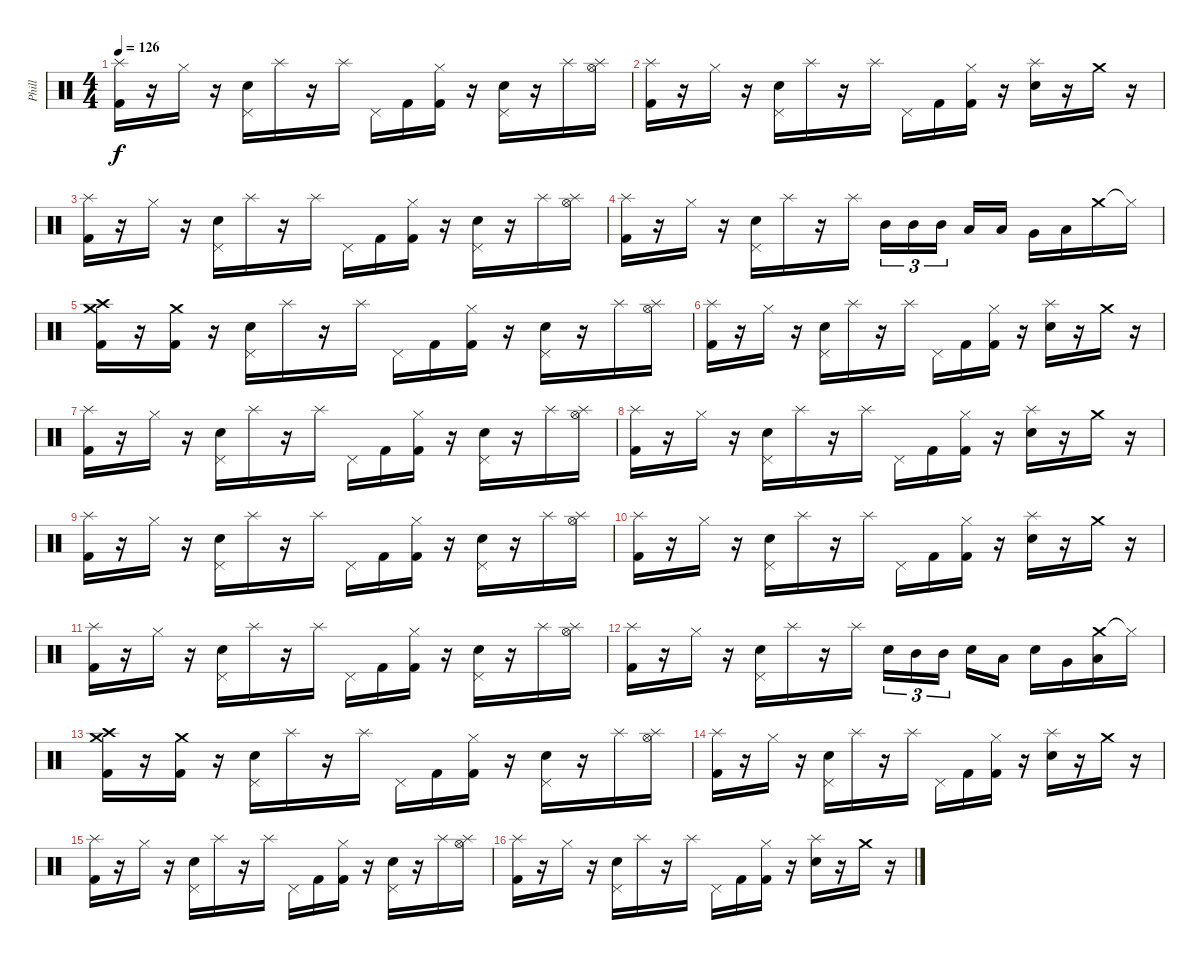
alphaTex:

\track ("Phill" "Phill") {instrument percussion}
\staff {score}
\articulation defaults
\ts (4 4)
\tempo 126
\clef neutral
\ks c
("Splash (hit)" "Kick (hit) 2").16{dy f} r.16 "Hi-Hat (closed)".16 r.16 ("Pedal Hi-Hat (hit)" "Electric Snare (hit)").16 "Splash (hit)".16 r.16 "Splash (hit)".16 "Pedal Hi-Hat (hit)".16 "Kick (hit) 2".16 ("Hi-Hat (closed)" "Kick (hit) 2").16 r.16 ("Pedal Hi-Hat (hit)" "Electric Snare (hit)").16 r.16 "Splash (hit)".16 ("Splash (hit)" "Hi-Hat (open)").16 |
("Splash (hit)" "Kick (hit) 2").16 r.16 "Hi-Hat (closed)".16 r.16 ("Pedal Hi-Hat (hit)" "Electric Snare (hit)").16 "Splash (hit)".16 r.16 "Splash (hit)".16 "Pedal Hi-Hat (hit)".16 "Kick (hit) 2".16 ("Hi-Hat (closed)" "Kick (hit) 2").16 r.16 ("Splash (hit)" "Electric Snare (hit)").16 r.16 "Crash medium (hit)".16 r.16 |
("Splash (hit)" "Kick (hit) 2").16 r.16 "Hi-Hat (closed)".16 r.16 ("Pedal Hi-Hat (hit)" "Electric Snare (hit)").16 "Splash (hit)".16 r.16 "Splash (hit)".16 "Pedal Hi-Hat (hit)".16 "Kick (hit) 2".16 ("Hi-Hat (closed)" "Kick (hit) 2").16 r.16 ("Pedal Hi-Hat (hit)" "Electric Snare (hit)").16 r.16 "Splash (hit)".16 ("Splash (hit)" "Hi-Hat (open)").16 |
("Splash (hit)" "Kick (hit) 2").16 r.16 "Hi-Hat (closed)".16 r.16 ("Pedal Hi-Hat (hit)" "Electric Snare (hit)").16 "Splash (hit)".16 r.16 "Splash (hit)".16 "Mid Tom (hit)".16{tu (3 2)} "Mid Tom (hit)".16{tu (3 2)} "Mid Tom (hit)".16{tu (3 2)} "Low Tom (hit)".16 "Low Tom (hit)".16 "Very Low Tom (hit)".16 "Low Floor Tom (hit)".16 "Crash medium (hit)".16 "Hi-Hat (closed)"{t}.16 |
("Crash medium (hit)" "Crash high (hit)" "Kick (hit) 2").16 r.16 ("Crash medium (hit)" "Kick (hit) 2").16 r.16 ("Pedal Hi-Hat (hit)" "Electric Snare (hit)").16 "Splash (hit)".16 r.16 "Splash (hit)".16 "Pedal Hi-Hat (hit)".16 "Kick (hit) 2".16 ("Hi-Hat (closed)" "Kick (hit) 2").16 r.16 ("Pedal Hi-Hat (hit)" "Electric Snare (hit)").16 r.16 "Splash (hit)".16 ("Splash (hit)" "Hi-Hat (open)").16 |
("Splash (hit)" "Kick (hit) 2").16 r.16 "Hi-Hat (closed)".16 r.16 ("Pedal Hi-Hat (hit)" "Electric Snare (hit)").16 "Splash (hit)".16 r.16 "Splash (hit)".16 "Pedal Hi-Hat (hit)".16 "Kick (hit) 2".16 ("Hi-Hat (closed)" "Kick (hit) 2").16 r.16 ("Splash (hit)" "Electric Snare (hit)").16 r.16 "Crash medium (hit)".16 r.16 |
("Splash (hit)" "Kick (hit) 2").16 r.16 "Hi-Hat (closed)".16 r.16 ("Pedal Hi-Hat (hit)" "Electric Snare (hit)").16 "Splash (hit)".16 r.16 "Splash (hit)".16 "Pedal Hi-Hat (hit)".16 "Kick (hit) 2".16 ("Hi-Hat (closed)" "Kick (hit) 2").16 r.16 ("Pedal Hi-Hat (hit)" "Electric Snare (hit)").16 r.16 "Splash (hit)".16 ("Splash (hit)" "Hi-Hat (open)").16 |
("Splash (hit)" "Kick (hit) 2").16 r.16 "Hi-Hat (closed)".16 r.16 ("Pedal Hi-Hat (hit)" "Electric Snare (hit)").16 "Splash (hit)".16 r.16 "Splash (hit)".16 "Pedal Hi-Hat (hit)".16 "Kick (hit) 2".16 ("Hi-Hat (closed)" "Kick (hit) 2").16 r.16 ("Splash (hit)" "Electric Snare (hit)").16 r.16 "Crash medium (hit)".16 r.16 |
("Splash (hit)" "Kick (hit) 2").16 r.16 "Hi-Hat (closed)".16 r.16 ("Pedal Hi-Hat (hit)" "Electric Snare (hit)").16 "Splash (hit)".16 r.16 "Splash (hit)".16 "Pedal Hi-Hat (hit)".16 "Kick (hit) 2".16 ("Hi-Hat (closed)" "Kick (hit) 2").16 r.16 ("Pedal Hi-Hat (hit)" "Electric Snare (hit)").16 r.16 "Splash (hit)".16 ("Splash (hit)" "Hi-Hat (open)").16 |
("Splash (hit)" "Kick (hit) 2").16 r.16 "Hi-Hat (closed)".16 r.16 ("Pedal Hi-Hat (hit)" "Electric Snare (hit)").16 "Splash (hit)".16 r.16 "Splash (hit)".16 "Pedal Hi-Hat (hit)".16 "Kick (hit) 2".16 ("Hi-Hat (closed)" "Kick (hit) 2").16 r.16 ("Splash (hit)" "Electric Snare (hit)").16 r.16 "Crash medium (hit)".16 r.16 |
("Splash (hit)" "Kick (hit) 2").16 r.16 "Hi-Hat (closed)".16 r.16 ("Pedal Hi-Hat (hit)" "Electric Snare (hit)").16 "Splash (hit)".16 r.16 "Splash (hit)".16 "Pedal Hi-Hat (hit)".16 "Kick (hit) 2".16 ("Hi-Hat (closed)" "Kick (hit) 2").16 r.16 ("Pedal Hi-Hat (hit)" "Electric Snare (hit)").16 r.16 "Splash (hit)".16 ("Splash (hit)" "Hi-Hat (open)").16 |
("Splash (hit)" "Kick (hit) 2").16 r.16 "Hi-Hat (closed)".16 r.16 ("Pedal Hi-Hat (hit)" "Electric Snare (hit)").16 "Splash (hit)".16 r.16 "Splash (hit)".16 "Electric Snare (hit)".16{tu (3 2)} "Mid Tom (hit)".16{tu (3 2)} "Mid Tom (hit)".16{tu (3 2)} "Electric Snare (hit)".16 "Low Tom (hit)".16 "Electric Snare (hit)".16 "Very Low Tom (hit)".16 ("Crash medium (hit)" "Low Tom (hit)").16 "Hi-Hat (closed)"{t}.16 |
("Crash medium (hit)" "Crash high (hit)" "Kick (hit) 2").16 r.16 ("Crash medium (hit)" "Kick (hit) 2").16 r.16 ("Pedal Hi-Hat (hit)" "Electric Snare (hit)").16 "Splash (hit)".16 r.16 "Splash (hit)".16 "Pedal Hi-Hat (hit)".16 "Kick (hit) 2".16 ("Hi-Hat (closed)" "Kick (hit) 2").16 r.16 ("Pedal Hi-Hat (hit)" "Electric Snare (hit)").16 r.16 "Splash (hit)".16 ("Splash (hit)" "Hi-Hat (open)").16 |
("Splash (hit)" "Kick (hit) 2").16 r.16 "Hi-Hat (closed)".16 r.16 ("Pedal Hi-Hat (hit)" "Electric Snare (hit)").16 "Splash (hit)".16 r.16 "Splash (hit)".16 "Pedal Hi-Hat (hit)".16 "Kick (hit) 2".16 ("Hi-Hat (closed)" "Kick (hit) 2").16 r.16 ("Splash (hit)" "Electric Snare (hit)").16 r.16 "Crash medium (hit)".16 r.16 |
("Splash (hit)" "Kick (hit) 2").16 r.16 "Hi-Hat (closed)".16 r.16 ("Pedal Hi-Hat (hit)" "Electric Snare (hit)").16 "Splash (hit)".16 r.16 "Splash (hit)".16 "Pedal Hi-Hat (hit)".16 "Kick (hit) 2".16 ("Hi-Hat (closed)" "Kick (hit) 2").16 r.16 ("Pedal Hi-Hat (hit)" "Electric Snare (hit)").16 r.16 "Splash (hit)".16 ("Splash (hit)" "Hi-Hat (open)").16 |
("Splash (hit)" "Kick (hit) 2").16 r.16 "Hi-Hat (closed)".16 r.16 ("Pedal Hi-Hat (hit)" "Electric Snare (hit)").16 "Splash (hit)".16 r.16 "Splash (hit)".16 "Pedal Hi-Hat (hit)".16 "Kick (hit) 2".16 ("Hi-Hat (closed)" "Kick (hit) 2").16 r.16 ("Splash (hit)" "Electric Snare (hit)").16 r.16 "Crash medium (hit)".16 r.16
